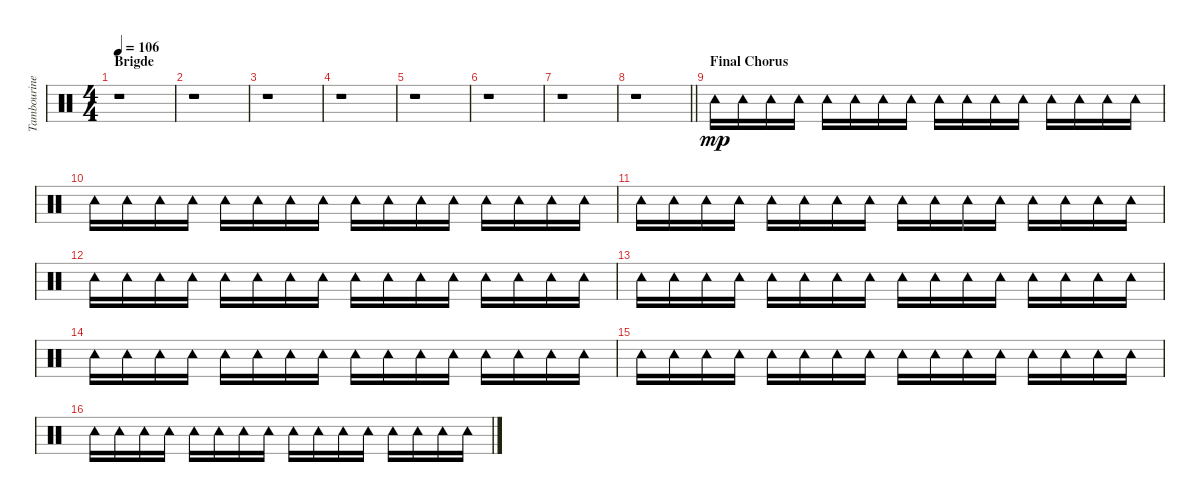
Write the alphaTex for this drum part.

\track ("Tambourine" "Tambourine") {instrument percussion}
\staff {score}
\articulation defaults
\ts (4 4)
\section ("" "Brigde")
\tempo 106
\clef neutral
\ks c
r.1{dy mp} |
r.1 |
r.1 |
r.1 |
r.1 |
r.1 |
r.1 |
\barLineRight lightlight
r.1 |
\section ("" "Final Chorus")
"Tambourine (hit)".16 "Tambourine (hit)".16 "Tambourine (hit)".16 "Tambourine (hit)".16 "Tambourine (hit)".16 "Tambourine (hit)".16 "Tambourine (hit)".16 "Tambourine (hit)".16 "Tambourine (hit)".16 "Tambourine (hit)".16 "Tambourine (hit)".16 "Tambourine (hit)".16 "Tambourine (hit)".16 "Tambourine (hit)".16 "Tambourine (hit)".16 "Tambourine (hit)".16 |
"Tambourine (hit)".16 "Tambourine (hit)".16 "Tambourine (hit)".16 "Tambourine (hit)".16 "Tambourine (hit)".16 "Tambourine (hit)".16 "Tambourine (hit)".16 "Tambourine (hit)".16 "Tambourine (hit)".16 "Tambourine (hit)".16 "Tambourine (hit)".16 "Tambourine (hit)".16 "Tambourine (hit)".16 "Tambourine (hit)".16 "Tambourine (hit)".16 "Tambourine (hit)".16 |
"Tambourine (hit)".16 "Tambourine (hit)".16 "Tambourine (hit)".16 "Tambourine (hit)".16 "Tambourine (hit)".16 "Tambourine (hit)".16 "Tambourine (hit)".16 "Tambourine (hit)".16 "Tambourine (hit)".16 "Tambourine (hit)".16 "Tambourine (hit)".16 "Tambourine (hit)".16 "Tambourine (hit)".16 "Tambourine (hit)".16 "Tambourine (hit)".16 "Tambourine (hit)".16 |
"Tambourine (hit)".16 "Tambourine (hit)".16 "Tambourine (hit)".16 "Tambourine (hit)".16 "Tambourine (hit)".16 "Tambourine (hit)".16 "Tambourine (hit)".16 "Tambourine (hit)".16 "Tambourine (hit)".16 "Tambourine (hit)".16 "Tambourine (hit)".16 "Tambourine (hit)".16 "Tambourine (hit)".16 "Tambourine (hit)".16 "Tambourine (hit)".16 "Tambourine (hit)".16 |
"Tambourine (hit)".16 "Tambourine (hit)".16 "Tambourine (hit)".16 "Tambourine (hit)".16 "Tambourine (hit)".16 "Tambourine (hit)".16 "Tambourine (hit)".16 "Tambourine (hit)".16 "Tambourine (hit)".16 "Tambourine (hit)".16 "Tambourine (hit)".16 "Tambourine (hit)".16 "Tambourine (hit)".16 "Tambourine (hit)".16 "Tambourine (hit)".16 "Tambourine (hit)".16 |
"Tambourine (hit)".16 "Tambourine (hit)".16 "Tambourine (hit)".16 "Tambourine (hit)".16 "Tambourine (hit)".16 "Tambourine (hit)".16 "Tambourine (hit)".16 "Tambourine (hit)".16 "Tambourine (hit)".16 "Tambourine (hit)".16 "Tambourine (hit)".16 "Tambourine (hit)".16 "Tambourine (hit)".16 "Tambourine (hit)".16 "Tambourine (hit)".16 "Tambourine (hit)".16 |
"Tambourine (hit)".16 "Tambourine (hit)".16 "Tambourine (hit)".16 "Tambourine (hit)".16 "Tambourine (hit)".16 "Tambourine (hit)".16 "Tambourine (hit)".16 "Tambourine (hit)".16 "Tambourine (hit)".16 "Tambourine (hit)".16 "Tambourine (hit)".16 "Tambourine (hit)".16 "Tambourine (hit)".16 "Tambourine (hit)".16 "Tambourine (hit)".16 "Tambourine (hit)".16 |
"Tambourine (hit)".16 "Tambourine (hit)".16 "Tambourine (hit)".16 "Tambourine (hit)".16 "Tambourine (hit)".16 "Tambourine (hit)".16 "Tambourine (hit)".16 "Tambourine (hit)".16 "Tambourine (hit)".16 "Tambourine (hit)".16 "Tambourine (hit)".16 "Tambourine (hit)".16 "Tambourine (hit)".16 "Tambourine (hit)".16 "Tambourine (hit)".16 "Tambourine (hit)".16
